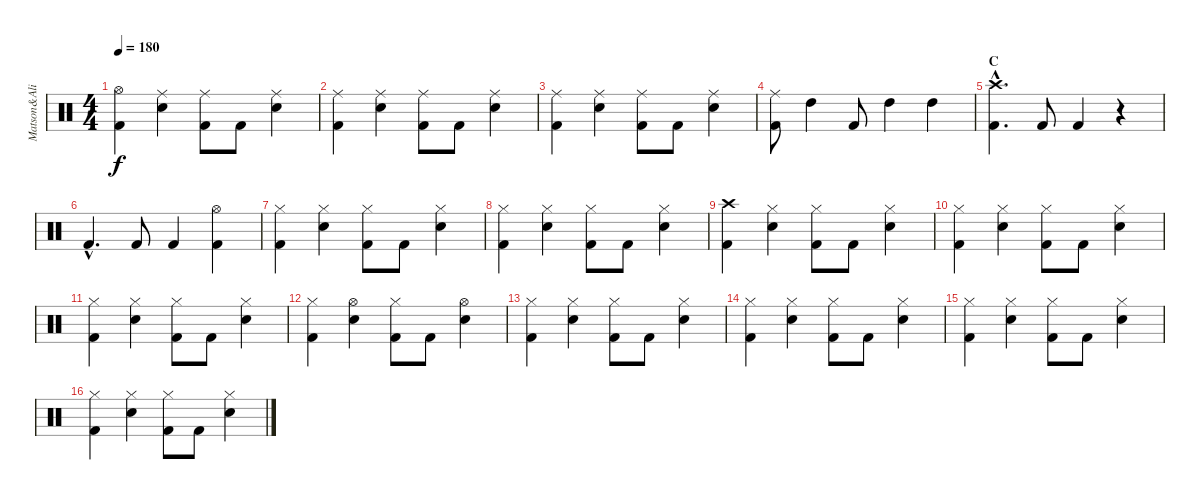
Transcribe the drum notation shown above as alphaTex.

\track ("Matson&Ali" "Matson&Ali") {instrument percussion}
\staff {score}
\articulation defaults
\ts (4 4)
\tempo 180
\clef neutral
\ks c
("Hi-Hat (open)" "Kick (hit) 2").4{dy f} ("Ride (middle)" "Snare (hit) 2").4 ("Ride (middle)" "Kick (hit) 2").8 "Kick (hit) 2".8 ("Ride (middle)" "Snare (hit) 2").4 |
("Ride (middle)" "Kick (hit) 2").4 ("Ride (middle)" "Snare (hit) 2").4 ("Ride (middle)" "Kick (hit) 2").8 "Kick (hit) 2".8 ("Ride (middle)" "Snare (hit) 2").4 |
("Ride (middle)" "Kick (hit) 2").4 ("Ride (middle)" "Snare (hit) 2").4 ("Ride (middle)" "Kick (hit) 2").8 "Kick (hit) 2".8 ("Ride (middle)" "Snare (hit) 2").4 |
("Ride (middle)" "Kick (hit) 2").8 "High Tom (hit)".4 "Kick (hit) 2".8 "High Tom (hit)".4 "High Tom (hit)".4 |
\section ("" "C")
("Crash high (hit)"{hac} "Kick (hit) 2").4{d} "Kick (hit) 2".8 "Kick (hit) 2".4 r.4 |
"Kick (hit) 2"{hac}.4{d} "Kick (hit) 2".8 "Kick (hit) 2".4 ("Hi-Hat (open)" "Kick (hit) 2").4 |
("Hi-Hat (closed)" "Kick (hit) 2").4 ("Hi-Hat (closed)" "Snare (hit) 2").4 ("Hi-Hat (closed)" "Kick (hit) 2").8 "Kick (hit) 2".8 ("Hi-Hat (closed)" "Snare (hit) 2").4 |
("Hi-Hat (closed)" "Kick (hit) 2").4 ("Hi-Hat (closed)" "Snare (hit) 2").4 ("Hi-Hat (closed)" "Kick (hit) 2").8 "Kick (hit) 2".8 ("Hi-Hat (closed)" "Snare (hit) 2").4 |
("Crash high (hit)" "Kick (hit) 2").4 ("Hi-Hat (closed)" "Snare (hit) 2").4 ("Hi-Hat (closed)" "Kick (hit) 2").8 "Kick (hit) 2".8 ("Hi-Hat (closed)" "Snare (hit) 2").4 |
("Hi-Hat (closed)" "Kick (hit) 2").4 ("Hi-Hat (closed)" "Snare (hit) 2").4 ("Hi-Hat (closed)" "Kick (hit) 2").8 "Kick (hit) 2".8 ("Hi-Hat (closed)" "Snare (hit) 2").4 |
("Hi-Hat (closed)" "Kick (hit) 2").4 ("Hi-Hat (closed)" "Snare (hit) 2").4 ("Hi-Hat (closed)" "Kick (hit) 2").8 "Kick (hit) 2".8 ("Hi-Hat (closed)" "Snare (hit) 2").4 |
("Hi-Hat (closed)" "Kick (hit) 2").4 ("Hi-Hat (open)" "Snare (hit) 2").4 ("Hi-Hat (closed)" "Kick (hit) 2").8 "Kick (hit) 2".8 ("Hi-Hat (open)" "Snare (hit) 2").4 |
("Hi-Hat (closed)" "Kick (hit) 2").4 ("Hi-Hat (closed)" "Snare (hit) 2").4 ("Hi-Hat (closed)" "Kick (hit) 2").8 "Kick (hit) 2".8 ("Hi-Hat (closed)" "Snare (hit) 2").4 |
("Hi-Hat (closed)" "Kick (hit) 2").4 ("Hi-Hat (closed)" "Snare (hit) 2").4 ("Hi-Hat (closed)" "Kick (hit) 2").8 "Kick (hit) 2".8 ("Hi-Hat (closed)" "Snare (hit) 2").4 |
("Hi-Hat (closed)" "Kick (hit) 2").4 ("Hi-Hat (closed)" "Snare (hit) 2").4 ("Hi-Hat (closed)" "Kick (hit) 2").8 "Kick (hit) 2".8 ("Hi-Hat (closed)" "Snare (hit) 2").4 |
("Hi-Hat (closed)" "Kick (hit) 2").4 ("Hi-Hat (closed)" "Snare (hit) 2").4 ("Hi-Hat (closed)" "Kick (hit) 2").8 "Kick (hit) 2".8 ("Hi-Hat (closed)" "Snare (hit) 2").4
